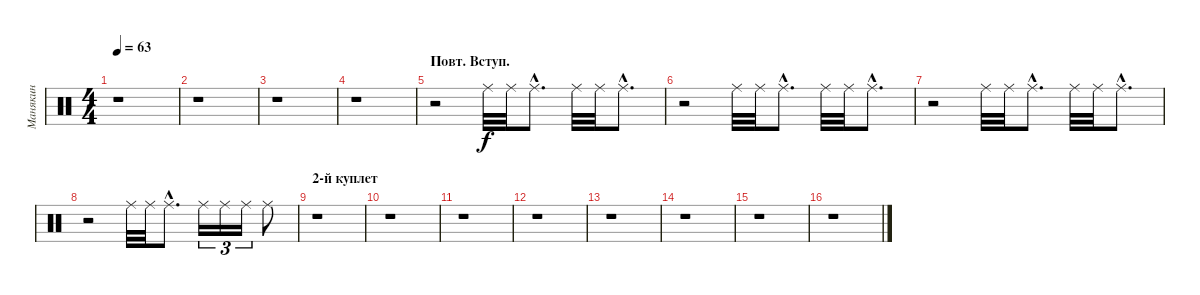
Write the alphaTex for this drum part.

\track ("Манякин" "Манякин") {instrument percussion}
\staff {score}
\articulation defaults
\ts (4 4)
\tempo 63
\clef neutral
\ks c
r.1{dy f} |
r.1 |
r.1 |
r.1 |
\section ("" "Повт. Вступ.")
r.2 "Ride (middle)".32 "Ride (middle)".32 "Ride (middle)"{hac}.8{d} "Ride (middle)".32 "Ride (middle)".32 "Ride (middle)"{hac}.8{d} |
r.2 "Ride (middle)".32 "Ride (middle)".32 "Ride (middle)"{hac}.8{d} "Ride (middle)".32 "Ride (middle)".32 "Ride (middle)"{hac}.8{d} |
r.2 "Ride (middle)".32 "Ride (middle)".32 "Ride (middle)"{hac}.8{d} "Ride (middle)".32 "Ride (middle)".32 "Ride (middle)"{hac}.8{d} |
r.2 "Ride (middle)".32 "Ride (middle)".32 "Ride (middle)"{hac}.8{d} "Ride (middle)".16{tu (3 2)} "Ride (middle)".16{tu (3 2)} "Ride (middle)".16{tu (3 2)} "Ride (middle)".8 |
\section ("" "2-й куплет")
r.1 |
r.1 |
r.1 |
r.1 |
r.1 |
r.1 |
r.1 |
r.1
